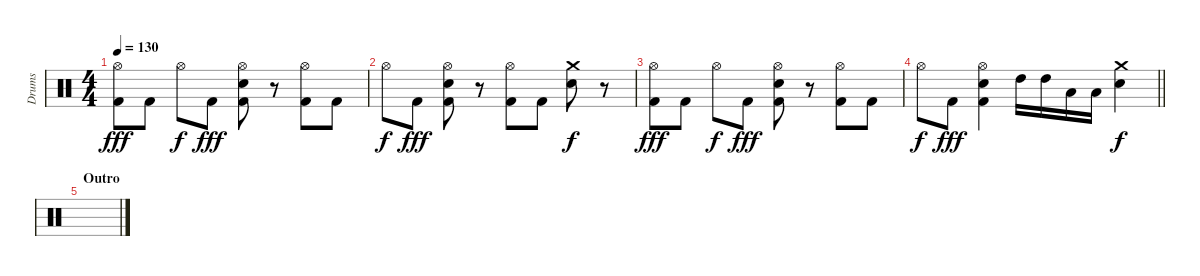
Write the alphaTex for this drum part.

\track ("Drums" "Drums") {instrument percussion}
\staff {score}
\articulation defaults
\ts (4 4)
\tempo 130
\clef neutral
\ks c
("Hi-Hat (open)" "Kick (hit) 2").8{dy fff} "Kick (hit) 2".8 "Hi-Hat (open)".8{dy f} "Kick (hit) 2".8{dy fff} ("Hi-Hat (open)" "Snare (hit) 2" "Kick (hit) 2").8 r.8 ("Hi-Hat (open)" "Kick (hit) 2").8 "Kick (hit) 2".8 |
"Hi-Hat (open)".8{dy f} "Kick (hit) 2".8{dy fff} ("Hi-Hat (open)" "Snare (hit) 2" "Kick (hit) 2").8 r.8 ("Hi-Hat (open)" "Kick (hit) 2").8 "Kick (hit) 2".8 ("Crash medium (hit)" "Snare (hit) 2").8{dy f} r.8 |
("Hi-Hat (open)" "Kick (hit) 2").8{dy fff} "Kick (hit) 2".8 "Hi-Hat (open)".8{dy f} "Kick (hit) 2".8{dy fff} ("Hi-Hat (open)" "Snare (hit) 2" "Kick (hit) 2").8 r.8 ("Hi-Hat (open)" "Kick (hit) 2").8 "Kick (hit) 2".8 |
\barLineRight lightlight "Hi-Hat (open)".8{dy f} "Kick (hit) 2".8{dy fff}
("Hi-Hat (open)" "Snare (hit) 2" "Kick (hit) 2").4 "High Tom (hit)".16 "High Tom (hit)".16 "Low Tom (hit)".16 "Low Tom (hit)".16 ("Crash medium (hit)" "Snare (hit) 2").4{dy f} |
\section ("" "Outro")
